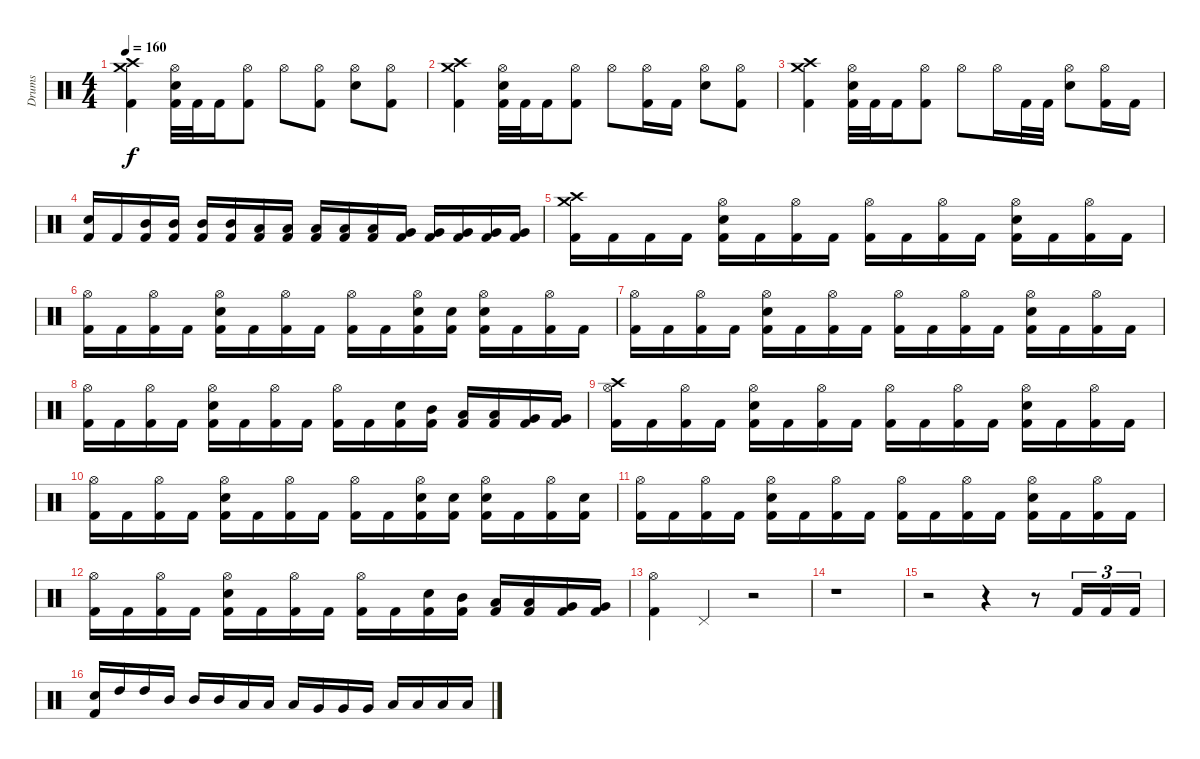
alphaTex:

\track ("Drums" "Drums") {instrument percussion}
\staff {score}
\articulation defaults
\ts (4 4)
\tempo 160
\clef neutral
\ks c
("Kick (hit) 2" "Crash medium (hit)" "Crash high (hit)").4{dy f} ("Kick (hit) 2" "Electric Snare (hit)" "Hi-Hat (open)").32 "Kick (hit) 2".32 "Kick (hit) 2".16 ("Kick (hit) 2" "Hi-Hat (open)").8 "Hi-Hat (open)".8 ("Kick (hit) 2" "Hi-Hat (open)").8 ("Electric Snare (hit)" "Hi-Hat (open)").8 ("Kick (hit) 2" "Hi-Hat (open)").8 |
("Kick (hit) 2" "Crash medium (hit)" "Crash high (hit)").4 ("Kick (hit) 2" "Electric Snare (hit)" "Hi-Hat (open)").32 "Kick (hit) 2".32 "Kick (hit) 2".16 ("Kick (hit) 2" "Hi-Hat (open)").8 "Hi-Hat (open)".8 ("Kick (hit) 2" "Hi-Hat (open)").16 "Kick (hit) 2".16 ("Electric Snare (hit)" "Hi-Hat (open)").8 ("Kick (hit) 2" "Hi-Hat (open)").8 |
("Kick (hit) 2" "Crash medium (hit)" "Crash high (hit)").4 ("Kick (hit) 2" "Electric Snare (hit)" "Hi-Hat (open)").32 "Kick (hit) 2".32 "Kick (hit) 2".16 ("Kick (hit) 2" "Hi-Hat (open)").8 "Hi-Hat (open)".8 "Hi-Hat (open)".16 "Kick (hit) 2".32 "Kick (hit) 2".32 ("Electric Snare (hit)" "Hi-Hat (open)").8 ("Kick (hit) 2" "Hi-Hat (open)").16 "Kick (hit) 2".16 |
("Kick (hit) 2" "Electric Snare (hit)").16 "Kick (hit) 2".16 ("Kick (hit) 2" "Mid Tom (hit)").16 ("Kick (hit) 2" "Mid Tom (hit)").16 ("Kick (hit) 2" "Mid Tom (hit)").16 ("Kick (hit) 2" "Mid Tom (hit)").16 ("Kick (hit) 2" "Low Tom (hit)").16 ("Kick (hit) 2" "Low Tom (hit)").16 ("Kick (hit) 2" "Low Tom (hit)").16 ("Kick (hit) 2" "Low Tom (hit)").16 ("Kick (hit) 2" "Low Tom (hit)").16 ("Kick (hit) 2" "Very Low Tom (hit)").16 ("Kick (hit) 2" "Very Low Tom (hit)").16 ("Kick (hit) 2" "Very Low Tom (hit)").16 ("Kick (hit) 2" "Very Low Tom (hit)").16 ("Kick (hit) 2" "Very Low Tom (hit)").16 |
("Kick (hit) 2" "Crash medium (hit)" "Crash high (hit)").16 "Kick (hit) 2".16 "Kick (hit) 2".16 "Kick (hit) 2".16 ("Kick (hit) 2" "Electric Snare (hit)" "Hi-Hat (open)").16 "Kick (hit) 2".16 ("Kick (hit) 2" "Hi-Hat (open)").16 "Kick (hit) 2".16 ("Kick (hit) 2" "Hi-Hat (open)").16 "Kick (hit) 2".16 ("Kick (hit) 2" "Hi-Hat (open)").16 "Kick (hit) 2".16 ("Kick (hit) 2" "Electric Snare (hit)" "Hi-Hat (open)").16 "Kick (hit) 2".16 ("Kick (hit) 2" "Hi-Hat (open)").16 "Kick (hit) 2".16 |
("Kick (hit) 2" "Hi-Hat (open)").16 "Kick (hit) 2".16 ("Kick (hit) 2" "Hi-Hat (open)").16 "Kick (hit) 2".16 ("Kick (hit) 2" "Electric Snare (hit)" "Hi-Hat (open)").16 "Kick (hit) 2".16 ("Kick (hit) 2" "Hi-Hat (open)").16 "Kick (hit) 2".16 ("Kick (hit) 2" "Hi-Hat (open)").16 "Kick (hit) 2".16 ("Kick (hit) 2" "Electric Snare (hit)" "Hi-Hat (open)").16 ("Kick (hit) 2" "Electric Snare (hit)").16 ("Kick (hit) 2" "Electric Snare (hit)" "Hi-Hat (open)").16 "Kick (hit) 2".16 ("Kick (hit) 2" "Hi-Hat (open)").16 "Kick (hit) 2".16 |
("Kick (hit) 2" "Hi-Hat (open)").16 "Kick (hit) 2".16 ("Kick (hit) 2" "Hi-Hat (open)").16 "Kick (hit) 2".16 ("Kick (hit) 2" "Electric Snare (hit)" "Hi-Hat (open)").16 "Kick (hit) 2".16 ("Kick (hit) 2" "Hi-Hat (open)").16 "Kick (hit) 2".16 ("Kick (hit) 2" "Hi-Hat (open)").16 "Kick (hit) 2".16 ("Kick (hit) 2" "Hi-Hat (open)").16 "Kick (hit) 2".16 ("Kick (hit) 2" "Electric Snare (hit)" "Hi-Hat (open)").16 "Kick (hit) 2".16 ("Kick (hit) 2" "Hi-Hat (open)").16 "Kick (hit) 2".16 |
("Kick (hit) 2" "Hi-Hat (open)").16 "Kick (hit) 2".16 ("Kick (hit) 2" "Hi-Hat (open)").16 "Kick (hit) 2".16 ("Kick (hit) 2" "Electric Snare (hit)" "Hi-Hat (open)").16 "Kick (hit) 2".16 ("Kick (hit) 2" "Hi-Hat (open)").16 "Kick (hit) 2".16 ("Kick (hit) 2" "Hi-Hat (open)").16 "Kick (hit) 2".16 ("Kick (hit) 2" "Electric Snare (hit)").16 ("Kick (hit) 2" "Mid Tom (hit)").16 ("Kick (hit) 2" "Low Tom (hit)").16 ("Kick (hit) 2" "Low Tom (hit)").16 ("Kick (hit) 2" "Very Low Tom (hit)").16 ("Kick (hit) 2" "Very Low Tom (hit)").16 |
("Kick (hit) 2" "Hi-Hat (open)" "Crash high (hit)").16 "Kick (hit) 2".16 ("Kick (hit) 2" "Hi-Hat (open)").16 "Kick (hit) 2".16 ("Kick (hit) 2" "Electric Snare (hit)" "Hi-Hat (open)").16 "Kick (hit) 2".16 ("Kick (hit) 2" "Hi-Hat (open)").16 "Kick (hit) 2".16 ("Kick (hit) 2" "Hi-Hat (open)").16 "Kick (hit) 2".16 ("Kick (hit) 2" "Hi-Hat (open)").16 "Kick (hit) 2".16 ("Kick (hit) 2" "Electric Snare (hit)" "Hi-Hat (open)").16 "Kick (hit) 2".16 ("Kick (hit) 2" "Hi-Hat (open)").16 "Kick (hit) 2".16 |
("Kick (hit) 2" "Hi-Hat (open)").16 "Kick (hit) 2".16 ("Kick (hit) 2" "Hi-Hat (open)").16 "Kick (hit) 2".16 ("Kick (hit) 2" "Electric Snare (hit)" "Hi-Hat (open)").16 "Kick (hit) 2".16 ("Kick (hit) 2" "Hi-Hat (open)").16 "Kick (hit) 2".16 ("Kick (hit) 2" "Hi-Hat (open)").16 "Kick (hit) 2".16 ("Kick (hit) 2" "Electric Snare (hit)" "Hi-Hat (open)").16 ("Kick (hit) 2" "Electric Snare (hit)").16 ("Kick (hit) 2" "Electric Snare (hit)" "Hi-Hat (open)").16 "Kick (hit) 2".16 ("Kick (hit) 2" "Hi-Hat (open)").16 ("Kick (hit) 2" "Electric Snare (hit)").16 |
("Kick (hit) 2" "Hi-Hat (open)").16 "Kick (hit) 2".16 ("Kick (hit) 2" "Hi-Hat (open)").16 "Kick (hit) 2".16 ("Kick (hit) 2" "Electric Snare (hit)" "Hi-Hat (open)").16 "Kick (hit) 2".16 ("Kick (hit) 2" "Hi-Hat (open)").16 "Kick (hit) 2".16 ("Kick (hit) 2" "Hi-Hat (open)").16 "Kick (hit) 2".16 ("Kick (hit) 2" "Hi-Hat (open)").16 "Kick (hit) 2".16 ("Kick (hit) 2" "Electric Snare (hit)" "Hi-Hat (open)").16 "Kick (hit) 2".16 ("Kick (hit) 2" "Hi-Hat (open)").16 "Kick (hit) 2".16 |
("Kick (hit) 2" "Hi-Hat (open)").16 "Kick (hit) 2".16 ("Kick (hit) 2" "Hi-Hat (open)").16 "Kick (hit) 2".16 ("Kick (hit) 2" "Electric Snare (hit)" "Hi-Hat (open)").16 "Kick (hit) 2".16 ("Kick (hit) 2" "Hi-Hat (open)").16 "Kick (hit) 2".16 ("Kick (hit) 2" "Hi-Hat (open)").16 "Kick (hit) 2".16 ("Kick (hit) 2" "Electric Snare (hit)").16 ("Kick (hit) 2" "Mid Tom (hit)").16 ("Kick (hit) 2" "Low Tom (hit)").16 ("Kick (hit) 2" "Low Tom (hit)").16 ("Kick (hit) 2" "Very Low Tom (hit)").16 ("Kick (hit) 2" "Very Low Tom (hit)").16 |
("Kick (hit) 2" "Hi-Hat (open)").4 "Pedal Hi-Hat (hit)".4 r.2 |
r.1 |
r.2 r.4 r.8 "Kick (hit) 2".16{tu (3 2)} "Kick (hit) 2".16{tu (3 2)} "Kick (hit) 2".16{tu (3 2)} |
("Kick (hit) 2" "Electric Snare (hit)").16 "High Tom (hit)".16 "High Tom (hit)".16 "Mid Tom (hit)".16 "Mid Tom (hit)".16 "Mid Tom (hit)".16 "Low Tom (hit)".16 "Low Tom (hit)".16 "Low Tom (hit)".16 "Very Low Tom (hit)".16 "Very Low Tom (hit)".16 "Very Low Tom (hit)".16 "Low Floor Tom (hit)".16 "Low Floor Tom (hit)".16 "Low Floor Tom (hit)".16 "Low Floor Tom (hit)".16
